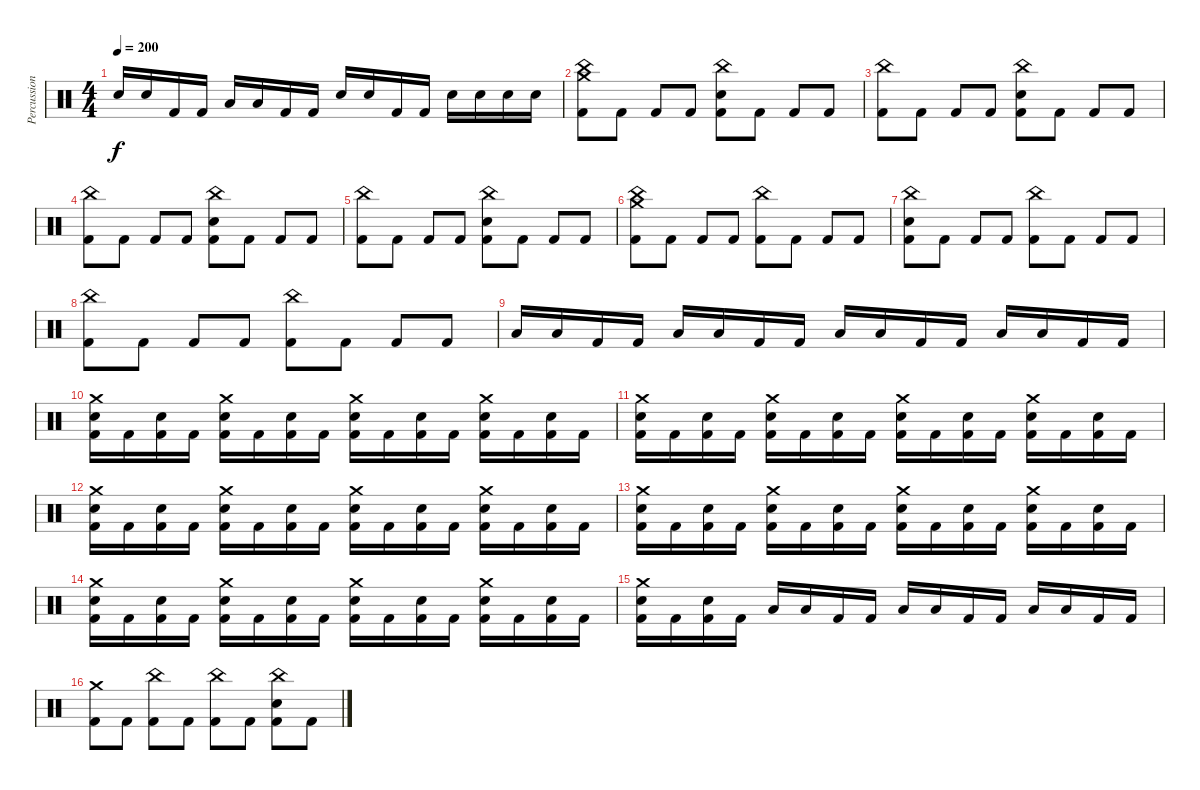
\track ("Percussion" "Percussion") {instrument percussion}
\staff {score}
\articulation defaults
\ts (4 4)
\tempo 200
\clef neutral
\ks c "Electric Snare (hit)".16{dy f} "Electric Snare (hit)".16 "Kick (hit) 2".16 "Kick (hit) 2".16 "Low Tom (hit)".16 "Low Tom (hit)".16 "Kick (hit) 2".16 "Kick (hit) 2".16 "Electric Snare (hit)".16 "Electric Snare (hit)".16 "Kick (hit) 2".16 "Kick (hit) 2".16 "Electric Snare (hit)".16 "Electric Snare (hit)".16 "Electric Snare (hit)".16 "Electric Snare (hit)".16
|
("China (hit)" "Crash medium (hit)" "Kick (hit) 2").8 "Kick (hit) 2".8 "Kick (hit) 2".8 "Kick (hit) 2".8 ("China (hit)" "Electric Snare (hit)" "Kick (hit) 2").8 "Kick (hit) 2".8 "Kick (hit) 2".8 "Kick (hit) 2".8 |
("China (hit)" "Kick (hit) 2").8 "Kick (hit) 2".8 "Kick (hit) 2".8 "Kick (hit) 2".8 ("China (hit)" "Electric Snare (hit)" "Kick (hit) 2").8 "Kick (hit) 2".8 "Kick (hit) 2".8 "Kick (hit) 2".8 |
("China (hit)" "Kick (hit) 2").8 "Kick (hit) 2".8 "Kick (hit) 2".8 "Kick (hit) 2".8 ("China (hit)" "Electric Snare (hit)" "Kick (hit) 2").8 "Kick (hit) 2".8 "Kick (hit) 2".8 "Kick (hit) 2".8 |
("China (hit)" "Kick (hit) 2").8 "Kick (hit) 2".8 "Kick (hit) 2".8 "Kick (hit) 2".8 ("China (hit)" "Electric Snare (hit)" "Kick (hit) 2").8 "Kick (hit) 2".8 "Kick (hit) 2".8 "Kick (hit) 2".8 |
("China (hit)" "Crash medium (hit)" "Kick (hit) 2").8 "Kick (hit) 2".8 "Kick (hit) 2".8 "Kick (hit) 2".8 ("China (hit)" "Kick (hit) 2").8 "Kick (hit) 2".8 "Kick (hit) 2".8 "Kick (hit) 2".8 |
("China (hit)" "Electric Snare (hit)" "Kick (hit) 2").8 "Kick (hit) 2".8 "Kick (hit) 2".8 "Kick (hit) 2".8 ("China (hit)" "Kick (hit) 2").8 "Kick (hit) 2".8 "Kick (hit) 2".8 "Kick (hit) 2".8 |
("China (hit)" "Kick (hit) 2").8 "Kick (hit) 2".8 "Kick (hit) 2".8 "Kick (hit) 2".8 ("China (hit)" "Kick (hit) 2").8 "Kick (hit) 2".8 "Kick (hit) 2".8 "Kick (hit) 2".8 |
"Low Tom (hit)".16 "Low Tom (hit)".16 "Kick (hit) 2".16 "Kick (hit) 2".16 "Low Tom (hit)".16 "Low Tom (hit)".16 "Kick (hit) 2".16 "Kick (hit) 2".16 "Low Floor Tom (hit)".16 "Low Floor Tom (hit)".16 "Kick (hit) 2".16 "Kick (hit) 2".16 "Low Floor Tom (hit)".16 "Low Floor Tom (hit)".16 "Kick (hit) 2".16 "Kick (hit) 2".16 |
("Crash medium (hit)" "Electric Snare (hit)" "Kick (hit) 2").16 "Kick (hit) 2".16 ("Electric Snare (hit)" "Kick (hit) 2").16 "Kick (hit) 2".16 ("Crash medium (hit)" "Electric Snare (hit)" "Kick (hit) 2").16 "Kick (hit) 2".16 ("Electric Snare (hit)" "Kick (hit) 2").16 "Kick (hit) 2".16 ("Crash medium (hit)" "Electric Snare (hit)" "Kick (hit) 2").16 "Kick (hit) 2".16 ("Electric Snare (hit)" "Kick (hit) 2").16 "Kick (hit) 2".16 ("Crash medium (hit)" "Electric Snare (hit)" "Kick (hit) 2").16 "Kick (hit) 2".16 ("Electric Snare (hit)" "Kick (hit) 2").16 "Kick (hit) 2".16 |
("Crash medium (hit)" "Electric Snare (hit)" "Kick (hit) 2").16 "Kick (hit) 2".16 ("Electric Snare (hit)" "Kick (hit) 2").16 "Kick (hit) 2".16 ("Crash medium (hit)" "Electric Snare (hit)" "Kick (hit) 2").16 "Kick (hit) 2".16 ("Electric Snare (hit)" "Kick (hit) 2").16 "Kick (hit) 2".16 ("Crash medium (hit)" "Electric Snare (hit)" "Kick (hit) 2").16 "Kick (hit) 2".16 ("Electric Snare (hit)" "Kick (hit) 2").16 "Kick (hit) 2".16 ("Crash medium (hit)" "Electric Snare (hit)" "Kick (hit) 2").16 "Kick (hit) 2".16 ("Electric Snare (hit)" "Kick (hit) 2").16 "Kick (hit) 2".16 |
("Crash medium (hit)" "Electric Snare (hit)" "Kick (hit) 2").16 "Kick (hit) 2".16 ("Electric Snare (hit)" "Kick (hit) 2").16 "Kick (hit) 2".16 ("Crash medium (hit)" "Electric Snare (hit)" "Kick (hit) 2").16 "Kick (hit) 2".16 ("Electric Snare (hit)" "Kick (hit) 2").16 "Kick (hit) 2".16 ("Crash medium (hit)" "Electric Snare (hit)" "Kick (hit) 2").16 "Kick (hit) 2".16 ("Electric Snare (hit)" "Kick (hit) 2").16 "Kick (hit) 2".16 ("Crash medium (hit)" "Electric Snare (hit)" "Kick (hit) 2").16 "Kick (hit) 2".16 ("Electric Snare (hit)" "Kick (hit) 2").16 "Kick (hit) 2".16 |
("Crash medium (hit)" "Electric Snare (hit)" "Kick (hit) 2").16 "Kick (hit) 2".16 ("Electric Snare (hit)" "Kick (hit) 2").16 "Kick (hit) 2".16 ("Crash medium (hit)" "Electric Snare (hit)" "Kick (hit) 2").16 "Kick (hit) 2".16 ("Electric Snare (hit)" "Kick (hit) 2").16 "Kick (hit) 2".16 ("Crash medium (hit)" "Electric Snare (hit)" "Kick (hit) 2").16 "Kick (hit) 2".16 ("Electric Snare (hit)" "Kick (hit) 2").16 "Kick (hit) 2".16 ("Crash medium (hit)" "Electric Snare (hit)" "Kick (hit) 2").16 "Kick (hit) 2".16 ("Electric Snare (hit)" "Kick (hit) 2").16 "Kick (hit) 2".16 |
("Crash medium (hit)" "Electric Snare (hit)" "Kick (hit) 2").16 "Kick (hit) 2".16 ("Electric Snare (hit)" "Kick (hit) 2").16 "Kick (hit) 2".16 ("Crash medium (hit)" "Electric Snare (hit)" "Kick (hit) 2").16 "Kick (hit) 2".16 ("Electric Snare (hit)" "Kick (hit) 2").16 "Kick (hit) 2".16 ("Crash medium (hit)" "Electric Snare (hit)" "Kick (hit) 2").16 "Kick (hit) 2".16 ("Electric Snare (hit)" "Kick (hit) 2").16 "Kick (hit) 2".16 ("Crash medium (hit)" "Electric Snare (hit)" "Kick (hit) 2").16 "Kick (hit) 2".16 ("Electric Snare (hit)" "Kick (hit) 2").16 "Kick (hit) 2".16 |
("Crash medium (hit)" "Electric Snare (hit)" "Kick (hit) 2").16 "Kick (hit) 2".16 ("Electric Snare (hit)" "Kick (hit) 2").16 "Kick (hit) 2".16 "Low Tom (hit)".16 "Low Tom (hit)".16 "Kick (hit) 2".16 "Kick (hit) 2".16 "Low Floor Tom (hit)".16 "Low Floor Tom (hit)".16 "Kick (hit) 2".16 "Kick (hit) 2".16 "Low Floor Tom (hit)".16 "Low Floor Tom (hit)".16 "Kick (hit) 2".16 "Kick (hit) 2".16 |
("Crash medium (hit)" "Kick (hit) 2").8 "Kick (hit) 2".8 ("China (hit)" "Kick (hit) 2").8 "Kick (hit) 2".8 ("China (hit)" "Kick (hit) 2").8 "Kick (hit) 2".8 ("China (hit)" "Electric Snare (hit)" "Kick (hit) 2").8 "Kick (hit) 2".8
